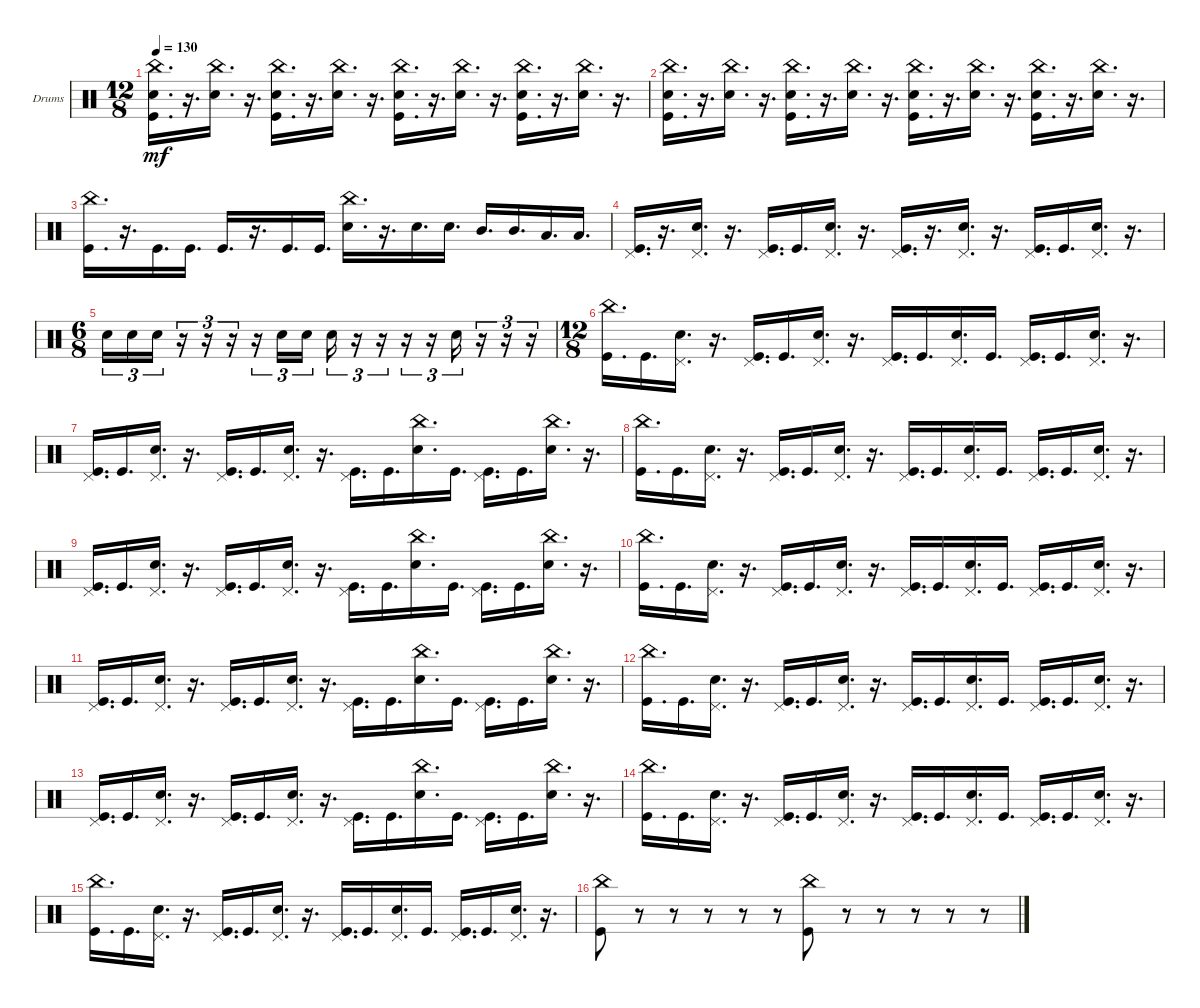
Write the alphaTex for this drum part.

\defaultSystemsLayout 4
\bracketExtendMode groupsimilarinstruments
\firstSystemTrackNameOrientation horizontal
\otherSystemsTrackNameOrientation horizontal
\track ("Drumkit" "Drums") {instrument percussion}
\staff {score}
\articulation defaults
\ts (12 8)
\tempo 130
\clef neutral
\ks c
("Kick (hit)" "Snare (hit) 2" "China (hit)").16{d dy mf} r.16{d} ("Snare (hit) 2" "China (hit)").16{d} r.16{d} ("Kick (hit)" "Snare (hit) 2" "China (hit)").16{d} r.16{d} ("Snare (hit) 2" "China (hit)").16{d} r.16{d} ("Kick (hit)" "Snare (hit) 2" "China (hit)").16{d} r.16{d} ("Snare (hit) 2" "China (hit)").16{d} r.16{d} ("Kick (hit)" "Snare (hit) 2" "China (hit)").16{d} r.16{d} ("Snare (hit) 2" "China (hit)").16{d} r.16{d} |
("Kick (hit)" "Snare (hit) 2" "China (hit)").16{d} r.16{d} ("Snare (hit) 2" "China (hit)").16{d} r.16{d} ("Kick (hit)" "Snare (hit) 2" "China (hit)").16{d} r.16{d} ("Snare (hit) 2" "China (hit)").16{d} r.16{d} ("Kick (hit)" "Snare (hit) 2" "China (hit)").16{d} r.16{d} ("Snare (hit) 2" "China (hit)").16{d} r.16{d} ("Kick (hit)" "Snare (hit) 2" "China (hit)").16{d} r.16{d} ("Snare (hit) 2" "China (hit)").16{d} r.16{d} |
("Kick (hit)" "China (hit)").16{d} r.16{d} "Kick (hit)".16{d} "Kick (hit)".16{d} "Kick (hit)".16{d} r.16{d} "Kick (hit)".16{d} "Kick (hit)".16{d} ("Snare (hit) 2" "China (hit)").16{d} r.16{d} "Snare (hit) 2".16{d} "Snare (hit) 2".16{d} "Mid Tom (hit)".16{d} "Mid Tom (hit)".16{d} "Low Tom (hit)".16{d} "Low Tom (hit)".16{d} |
("Kick (hit)" "Pedal Hi-Hat (hit)").16{d} r.16{d} ("Snare (hit) 2" "Pedal Hi-Hat (hit)").16{d} r.16{d} ("Kick (hit)" "Pedal Hi-Hat (hit)").16{d} "Kick (hit)".16{d} ("Snare (hit) 2" "Pedal Hi-Hat (hit)").16{d} r.16{d} ("Kick (hit)" "Pedal Hi-Hat (hit)").16{d} r.16{d} ("Snare (hit) 2" "Pedal Hi-Hat (hit)").16{d} r.16{d} ("Kick (hit)" "Pedal Hi-Hat (hit)").16{d} "Kick (hit)".16{d} ("Snare (hit) 2" "Pedal Hi-Hat (hit)").16{d} r.16{d} |
\ts (6 8)
"Snare (hit) 2".16{tu (3 2)} "Snare (hit) 2".16{tu (3 2)} "Snare (hit) 2".16{tu (3 2)} r.16{tu (3 2)} r.16{tu (3 2)} r.16{tu (3 2)} r.16{tu (3 2)} "Snare (hit) 2".16{tu (3 2)} "Snare (hit) 2".16{tu (3 2)} "Snare (hit) 2".16{tu (3 2)} r.16{tu (3 2)} r.16{tu (3 2)} r.16{tu (3 2)} r.16{tu (3 2)} "Snare (hit) 2".16{tu (3 2)} r.16{tu (3 2)} r.16{tu (3 2)} r.16{tu (3 2)} |
\ts (12 8)
("Kick (hit)" "China (hit)").16{d} "Kick (hit)".16{d} ("Snare (hit) 2" "Pedal Hi-Hat (hit)").16{d} r.16{d} ("Kick (hit)" "Pedal Hi-Hat (hit)").16{d} "Kick (hit)".16{d} ("Snare (hit) 2" "Pedal Hi-Hat (hit)").16{d} r.16{d} ("Kick (hit)" "Pedal Hi-Hat (hit)").16{d} "Kick (hit)".16{d} ("Snare (hit) 2" "Pedal Hi-Hat (hit)").16{d} "Kick (hit)".16{d} ("Kick (hit)" "Pedal Hi-Hat (hit)").16{d} "Kick (hit)".16{d} ("Snare (hit) 2" "Pedal Hi-Hat (hit)").16{d} r.16{d} |
("Kick (hit)" "Pedal Hi-Hat (hit)").16{d} "Kick (hit)".16{d} ("Snare (hit) 2" "Pedal Hi-Hat (hit)").16{d} r.16{d} ("Kick (hit)" "Pedal Hi-Hat (hit)").16{d} "Kick (hit)".16{d} ("Snare (hit) 2" "Pedal Hi-Hat (hit)").16{d} r.16{d} ("Kick (hit)" "Pedal Hi-Hat (hit)").16{d} "Kick (hit)".16{d} ("Snare (hit) 2" "China (hit)").16{d} "Kick (hit)".16{d} ("Kick (hit)" "Pedal Hi-Hat (hit)").16{d} "Kick (hit)".16{d} ("Snare (hit) 2" "China (hit)").16{d} r.16{d} |
("Kick (hit)" "China (hit)").16{d} "Kick (hit)".16{d} ("Snare (hit) 2" "Pedal Hi-Hat (hit)").16{d} r.16{d} ("Kick (hit)" "Pedal Hi-Hat (hit)").16{d} "Kick (hit)".16{d} ("Snare (hit) 2" "Pedal Hi-Hat (hit)").16{d} r.16{d} ("Kick (hit)" "Pedal Hi-Hat (hit)").16{d} "Kick (hit)".16{d} ("Snare (hit) 2" "Pedal Hi-Hat (hit)").16{d} "Kick (hit)".16{d} ("Kick (hit)" "Pedal Hi-Hat (hit)").16{d} "Kick (hit)".16{d} ("Snare (hit) 2" "Pedal Hi-Hat (hit)").16{d} r.16{d} |
("Kick (hit)" "Pedal Hi-Hat (hit)").16{d} "Kick (hit)".16{d} ("Snare (hit) 2" "Pedal Hi-Hat (hit)").16{d} r.16{d} ("Kick (hit)" "Pedal Hi-Hat (hit)").16{d} "Kick (hit)".16{d} ("Snare (hit) 2" "Pedal Hi-Hat (hit)").16{d} r.16{d} ("Kick (hit)" "Pedal Hi-Hat (hit)").16{d} "Kick (hit)".16{d} ("Snare (hit) 2" "China (hit)").16{d} "Kick (hit)".16{d} ("Kick (hit)" "Pedal Hi-Hat (hit)").16{d} "Kick (hit)".16{d} ("Snare (hit) 2" "China (hit)").16{d} r.16{d} |
("Kick (hit)" "China (hit)").16{d} "Kick (hit)".16{d} ("Snare (hit) 2" "Pedal Hi-Hat (hit)").16{d} r.16{d} ("Kick (hit)" "Pedal Hi-Hat (hit)").16{d} "Kick (hit)".16{d} ("Snare (hit) 2" "Pedal Hi-Hat (hit)").16{d} r.16{d} ("Kick (hit)" "Pedal Hi-Hat (hit)").16{d} "Kick (hit)".16{d} ("Snare (hit) 2" "Pedal Hi-Hat (hit)").16{d} "Kick (hit)".16{d} ("Kick (hit)" "Pedal Hi-Hat (hit)").16{d} "Kick (hit)".16{d} ("Snare (hit) 2" "Pedal Hi-Hat (hit)").16{d} r.16{d} |
("Kick (hit)" "Pedal Hi-Hat (hit)").16{d} "Kick (hit)".16{d} ("Snare (hit) 2" "Pedal Hi-Hat (hit)").16{d} r.16{d} ("Kick (hit)" "Pedal Hi-Hat (hit)").16{d} "Kick (hit)".16{d} ("Snare (hit) 2" "Pedal Hi-Hat (hit)").16{d} r.16{d} ("Kick (hit)" "Pedal Hi-Hat (hit)").16{d} "Kick (hit)".16{d} ("Snare (hit) 2" "China (hit)").16{d} "Kick (hit)".16{d} ("Kick (hit)" "Pedal Hi-Hat (hit)").16{d} "Kick (hit)".16{d} ("Snare (hit) 2" "China (hit)").16{d} r.16{d} |
("Kick (hit)" "China (hit)").16{d} "Kick (hit)".16{d} ("Snare (hit) 2" "Pedal Hi-Hat (hit)").16{d} r.16{d} ("Kick (hit)" "Pedal Hi-Hat (hit)").16{d} "Kick (hit)".16{d} ("Snare (hit) 2" "Pedal Hi-Hat (hit)").16{d} r.16{d} ("Kick (hit)" "Pedal Hi-Hat (hit)").16{d} "Kick (hit)".16{d} ("Snare (hit) 2" "Pedal Hi-Hat (hit)").16{d} "Kick (hit)".16{d} ("Kick (hit)" "Pedal Hi-Hat (hit)").16{d} "Kick (hit)".16{d} ("Snare (hit) 2" "Pedal Hi-Hat (hit)").16{d} r.16{d} |
("Kick (hit)" "Pedal Hi-Hat (hit)").16{d} "Kick (hit)".16{d} ("Snare (hit) 2" "Pedal Hi-Hat (hit)").16{d} r.16{d} ("Kick (hit)" "Pedal Hi-Hat (hit)").16{d} "Kick (hit)".16{d} ("Snare (hit) 2" "Pedal Hi-Hat (hit)").16{d} r.16{d} ("Kick (hit)" "Pedal Hi-Hat (hit)").16{d} "Kick (hit)".16{d} ("Snare (hit) 2" "China (hit)").16{d} "Kick (hit)".16{d} ("Kick (hit)" "Pedal Hi-Hat (hit)").16{d} "Kick (hit)".16{d} ("Snare (hit) 2" "China (hit)").16{d} r.16{d} |
("Kick (hit)" "China (hit)").16{d} "Kick (hit)".16{d} ("Snare (hit) 2" "Pedal Hi-Hat (hit)").16{d} r.16{d} ("Kick (hit)" "Pedal Hi-Hat (hit)").16{d} "Kick (hit)".16{d} ("Snare (hit) 2" "Pedal Hi-Hat (hit)").16{d} r.16{d} ("Kick (hit)" "Pedal Hi-Hat (hit)").16{d} "Kick (hit)".16{d} ("Snare (hit) 2" "Pedal Hi-Hat (hit)").16{d} "Kick (hit)".16{d} ("Kick (hit)" "Pedal Hi-Hat (hit)").16{d} "Kick (hit)".16{d} ("Snare (hit) 2" "Pedal Hi-Hat (hit)").16{d} r.16{d} |
("Kick (hit)" "China (hit)").16{d} "Kick (hit)".16{d} ("Snare (hit) 2" "Pedal Hi-Hat (hit)").16{d} r.16{d} ("Kick (hit)" "Pedal Hi-Hat (hit)").16{d} "Kick (hit)".16{d} ("Snare (hit) 2" "Pedal Hi-Hat (hit)").16{d} r.16{d} ("Kick (hit)" "Pedal Hi-Hat (hit)").16{d} "Kick (hit)".16{d} ("Snare (hit) 2" "Pedal Hi-Hat (hit)").16{d} "Kick (hit)".16{d} ("Kick (hit)" "Pedal Hi-Hat (hit)").16{d} "Kick (hit)".16{d} ("Snare (hit) 2" "Pedal Hi-Hat (hit)").16{d} r.16{d} |
("Kick (hit)" "China (hit)").8 r.8 r.8 r.8 r.8 r.8 ("Kick (hit)" "China (hit)").8 r.8 r.8 r.8 r.8 r.8
